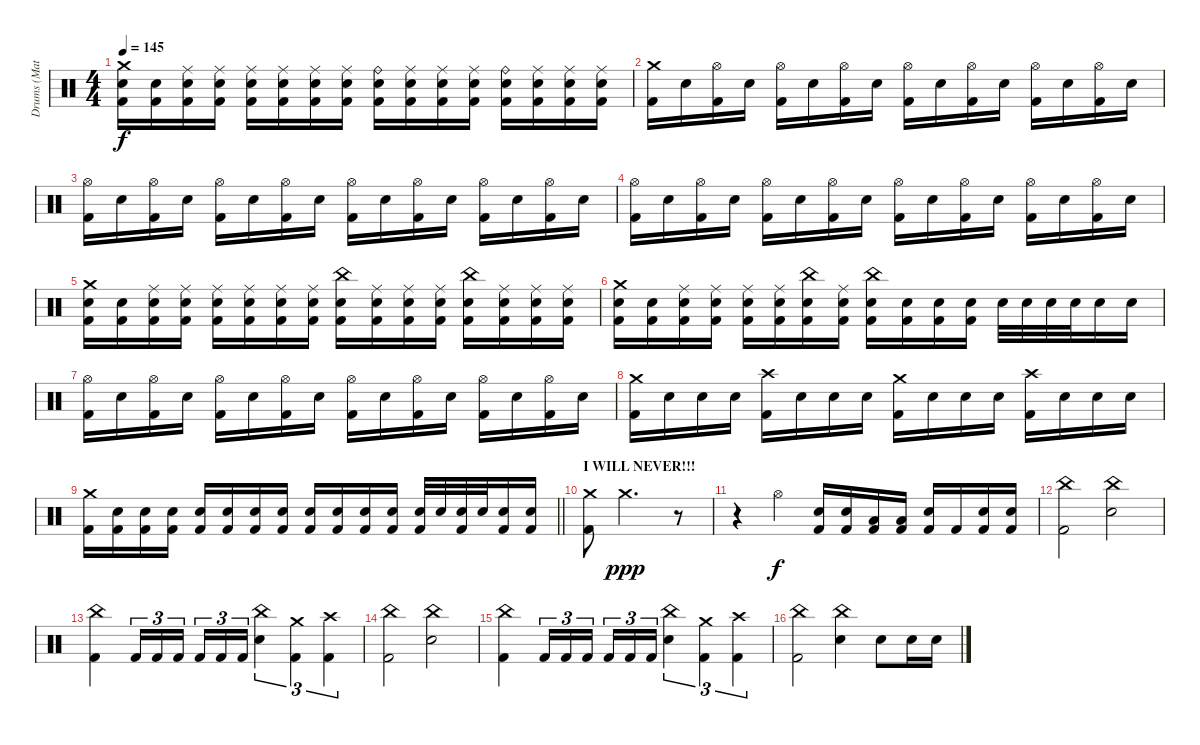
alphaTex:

\track ("Drums (Matt Kuykendall)" "Drums (Mat") {instrument percussion}
\staff {score}
\articulation defaults
\ts (4 4)
\tempo 145
\clef neutral
\ks c
("Crash medium (hit)" "Electric Snare (hit)" "Kick (hit) 2").16{dy f} ("Electric Snare (hit)" "Kick (hit) 2").16 ("Ride (middle)" "Electric Snare (hit)" "Kick (hit) 2").16 ("Ride (middle)" "Electric Snare (hit)" "Kick (hit) 2").16 ("Ride (middle)" "Electric Snare (hit)" "Kick (hit) 2").16 ("Ride (middle)" "Electric Snare (hit)" "Kick (hit) 2").16 ("Ride (middle)" "Electric Snare (hit)" "Kick (hit) 2").16 ("Ride (middle)" "Electric Snare (hit)" "Kick (hit) 2").16 ("Ride (bell)" "Electric Snare (hit)" "Kick (hit) 2").16 ("Ride (middle)" "Electric Snare (hit)" "Kick (hit) 2").16 ("Ride (middle)" "Electric Snare (hit)" "Kick (hit) 2").16 ("Ride (middle)" "Electric Snare (hit)" "Kick (hit) 2").16 ("Ride (bell)" "Electric Snare (hit)" "Kick (hit) 2").16 ("Ride (middle)" "Electric Snare (hit)" "Kick (hit) 2").16 ("Ride (middle)" "Electric Snare (hit)" "Kick (hit) 2").16 ("Ride (middle)" "Electric Snare (hit)" "Kick (hit) 2").16 |
("Crash medium (hit)" "Kick (hit) 2").16 "Electric Snare (hit)".16 ("Hi-Hat (open)" "Kick (hit) 2").16 "Electric Snare (hit)".16 ("Hi-Hat (open)" "Kick (hit) 2").16 "Electric Snare (hit)".16 ("Hi-Hat (open)" "Kick (hit) 2").16 "Electric Snare (hit)".16 ("Hi-Hat (open)" "Kick (hit) 2").16 "Electric Snare (hit)".16 ("Hi-Hat (open)" "Kick (hit) 2").16 "Electric Snare (hit)".16 ("Hi-Hat (open)" "Kick (hit) 2").16 "Electric Snare (hit)".16 ("Hi-Hat (open)" "Kick (hit) 2").16 "Electric Snare (hit)".16 |
("Hi-Hat (open)" "Kick (hit) 2").16 "Electric Snare (hit)".16 ("Hi-Hat (open)" "Kick (hit) 2").16 "Electric Snare (hit)".16 ("Hi-Hat (open)" "Kick (hit) 2").16 "Electric Snare (hit)".16 ("Hi-Hat (open)" "Kick (hit) 2").16 "Electric Snare (hit)".16 ("Hi-Hat (open)" "Kick (hit) 2").16 "Electric Snare (hit)".16 ("Hi-Hat (open)" "Kick (hit) 2").16 "Electric Snare (hit)".16 ("Hi-Hat (open)" "Kick (hit) 2").16 "Electric Snare (hit)".16 ("Hi-Hat (open)" "Kick (hit) 2").16 "Electric Snare (hit)".16 |
("Hi-Hat (open)" "Kick (hit) 2").16 "Electric Snare (hit)".16 ("Hi-Hat (open)" "Kick (hit) 2").16 "Electric Snare (hit)".16 ("Hi-Hat (open)" "Kick (hit) 2").16 "Electric Snare (hit)".16 ("Hi-Hat (open)" "Kick (hit) 2").16 "Electric Snare (hit)".16 ("Hi-Hat (open)" "Kick (hit) 2").16 "Electric Snare (hit)".16 ("Hi-Hat (open)" "Kick (hit) 2").16 "Electric Snare (hit)".16 ("Hi-Hat (open)" "Kick (hit) 2").16 "Electric Snare (hit)".16 ("Hi-Hat (open)" "Kick (hit) 2").16 "Electric Snare (hit)".16 |
("Crash medium (hit)" "Electric Snare (hit)" "Kick (hit) 2").16 ("Electric Snare (hit)" "Kick (hit) 2").16 ("Ride (middle)" "Electric Snare (hit)" "Kick (hit) 2").16 ("Ride (middle)" "Electric Snare (hit)" "Kick (hit) 2").16 ("Ride (middle)" "Electric Snare (hit)" "Kick (hit) 2").16 ("Ride (middle)" "Electric Snare (hit)" "Kick (hit) 2").16 ("Ride (middle)" "Electric Snare (hit)" "Kick (hit) 2").16 ("Ride (middle)" "Electric Snare (hit)" "Kick (hit) 2").16 ("China (hit)" "Electric Snare (hit)" "Kick (hit) 2").16 ("Ride (middle)" "Electric Snare (hit)" "Kick (hit) 2").16 ("Ride (middle)" "Electric Snare (hit)" "Kick (hit) 2").16 ("Ride (middle)" "Electric Snare (hit)" "Kick (hit) 2").16 ("China (hit)" "Electric Snare (hit)" "Kick (hit) 2").16 ("Ride (middle)" "Electric Snare (hit)" "Kick (hit) 2").16 ("Ride (middle)" "Electric Snare (hit)" "Kick (hit) 2").16 ("Ride (middle)" "Electric Snare (hit)" "Kick (hit) 2").16 |
("Crash medium (hit)" "Electric Snare (hit)" "Kick (hit) 2").16 ("Electric Snare (hit)" "Kick (hit) 2").16 ("Ride (middle)" "Electric Snare (hit)" "Kick (hit) 2").16 ("Ride (middle)" "Electric Snare (hit)" "Kick (hit) 2").16 ("Ride (middle)" "Electric Snare (hit)" "Kick (hit) 2").16 ("Ride (middle)" "Electric Snare (hit)" "Kick (hit) 2").16 ("China (hit)" "Electric Snare (hit)" "Kick (hit) 2").16 ("Ride (middle)" "Electric Snare (hit)" "Kick (hit) 2").16 ("China (hit)" "Electric Snare (hit)" "Kick (hit) 2").16 ("Electric Snare (hit)" "Kick (hit) 2").16 ("Electric Snare (hit)" "Kick (hit) 2").16 ("Electric Snare (hit)" "Kick (hit) 2").16 "Electric Snare (hit)".32 "Electric Snare (hit)".32 "Electric Snare (hit)".32 "Electric Snare (hit)".32 "Electric Snare (hit)".16 "Electric Snare (hit)".16 |
("Hi-Hat (open)" "Kick (hit) 2").16 "Electric Snare (hit)".16 ("Hi-Hat (open)" "Kick (hit) 2").16 "Electric Snare (hit)".16 ("Hi-Hat (open)" "Kick (hit) 2").16 "Electric Snare (hit)".16 ("Hi-Hat (open)" "Kick (hit) 2").16 "Electric Snare (hit)".16 ("Hi-Hat (open)" "Kick (hit) 2").16 "Electric Snare (hit)".16 ("Hi-Hat (open)" "Kick (hit) 2").16 "Electric Snare (hit)".16 ("Hi-Hat (open)" "Kick (hit) 2").16 "Electric Snare (hit)".16 ("Hi-Hat (open)" "Kick (hit) 2").16 "Electric Snare (hit)".16 |
("Crash medium (hit)" "Kick (hit) 2").16 "Electric Snare (hit)".16 "Electric Snare (hit)".16 "Electric Snare (hit)".16 ("Crash high (hit)" "Kick (hit) 2").16 "Electric Snare (hit)".16 "Electric Snare (hit)".16 "Electric Snare (hit)".16 ("Crash medium (hit)" "Kick (hit) 2").16 "Electric Snare (hit)".16 "Electric Snare (hit)".16 "Electric Snare (hit)".16 ("Crash high (hit)" "Kick (hit) 2").16 "Electric Snare (hit)".16 "Electric Snare (hit)".16 "Electric Snare (hit)".16 |
\barLineRight lightlight
("Crash medium (hit)" "Kick (hit) 2").16 ("Electric Snare (hit)" "Kick (hit) 2").16 ("Electric Snare (hit)" "Kick (hit) 2").16 ("Electric Snare (hit)" "Kick (hit) 2").16 ("Electric Snare (hit)" "Kick (hit) 2").16 ("Electric Snare (hit)" "Kick (hit) 2").16 ("Electric Snare (hit)" "Kick (hit) 2").16 ("Electric Snare (hit)" "Kick (hit) 2").16 ("Electric Snare (hit)" "Kick (hit) 2").16 ("Electric Snare (hit)" "Kick (hit) 2").16 ("Electric Snare (hit)" "Kick (hit) 2").16 ("Electric Snare (hit)" "Kick (hit) 2").16 ("Electric Snare (hit)" "Kick (hit) 2").32 "Electric Snare (hit)".32 ("Electric Snare (hit)" "Kick (hit) 2").32 "Electric Snare (hit)".32 ("Electric Snare (hit)" "Kick (hit) 2").16 ("Electric Snare (hit)" "Kick (hit) 2").16 |
\section ("" "I WILL NEVER!!!")
("Crash medium (hit)" "Kick (hit) 2").8 "Crash medium (hit)".2{d dy ppp} r.8 |
r.4 "Hi-Hat (open)".4{dy f} ("Electric Snare (hit)" "Kick (hit) 2").16 ("Electric Snare (hit)" "Kick (hit) 2").16 ("Low Tom (hit)" "Kick (hit) 2").16 ("Low Tom (hit)" "Kick (hit) 2").16 ("Electric Snare (hit)" "Kick (hit) 2").16 "Kick (hit) 2".16 ("Electric Snare (hit)" "Kick (hit) 2").16 ("Electric Snare (hit)" "Kick (hit) 2").16 |
("China (hit)" "Kick (hit) 2").2 ("China (hit)" "Electric Snare (hit)").2 |
("China (hit)" "Kick (hit) 2").4 "Kick (hit) 2".16{tu (3 2)} "Kick (hit) 2".16{tu (3 2)} "Kick (hit) 2".16{tu (3 2) beam splitsecondary} "Kick (hit) 2".16{tu (3 2)} "Kick (hit) 2".16{tu (3 2)} "Kick (hit) 2".16{tu (3 2)} ("China (hit)" "Electric Snare (hit)").4{tu (3 2)} ("Crash medium (hit)" "Kick (hit) 2").4{tu (3 2)} ("Crash high (hit)" "Kick (hit) 2").4{tu (3 2)} |
("China (hit)" "Kick (hit) 2").2 ("China (hit)" "Electric Snare (hit)").2 |
("China (hit)" "Kick (hit) 2").4 "Kick (hit) 2".16{tu (3 2)} "Kick (hit) 2".16{tu (3 2)} "Kick (hit) 2".16{tu (3 2) beam splitsecondary} "Kick (hit) 2".16{tu (3 2)} "Kick (hit) 2".16{tu (3 2)} "Kick (hit) 2".16{tu (3 2)} ("China (hit)" "Electric Snare (hit)").4{tu (3 2)} ("Crash medium (hit)" "Kick (hit) 2").4{tu (3 2)} ("Crash high (hit)" "Kick (hit) 2").4{tu (3 2)} |
("China (hit)" "Kick (hit) 2").2 ("China (hit)" "Electric Snare (hit)").4 "Electric Snare (hit)".8 "Electric Snare (hit)".16 "Electric Snare (hit)".16
